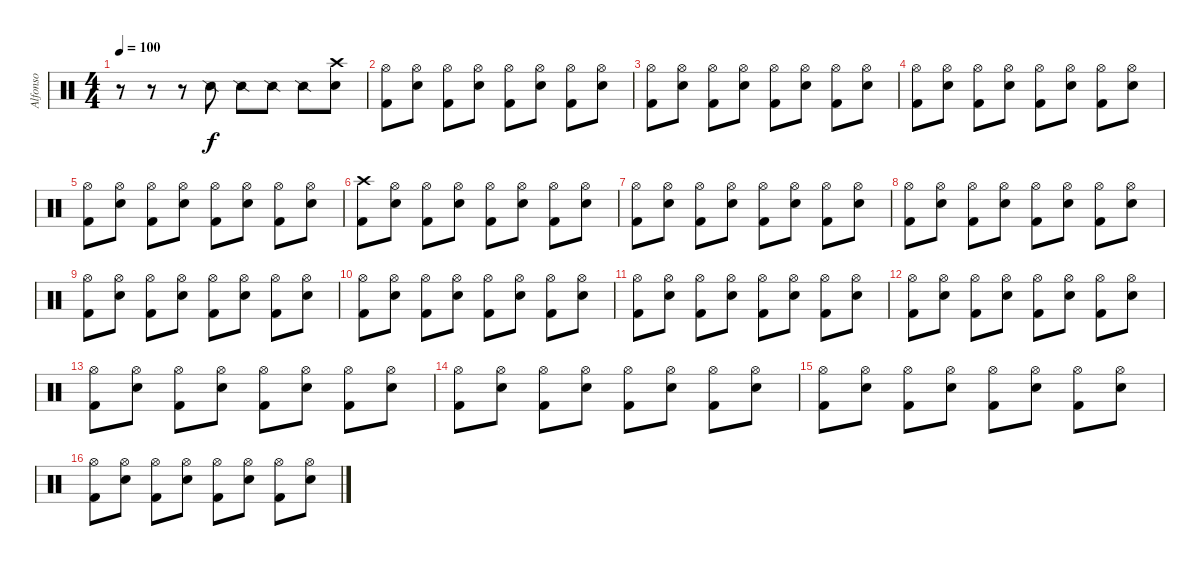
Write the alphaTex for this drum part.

\track ("Alfonso" "Alfonso") {instrument percussion}
\staff {score}
\articulation defaults
\ts (4 4)
\tempo 100
\clef neutral
\ks c
r.8{dy f} r.8 r.8 "Snare (side stick) 2".8 "Snare (side stick) 2".8 "Snare (side stick) 2".8 "Snare (side stick) 2".8 ("Crash high (hit)" "Electric Snare (hit)").8 |
("Hi-Hat (open)" "Kick (hit) 2").8 ("Hi-Hat (open)" "Electric Snare (hit)").8 ("Hi-Hat (open)" "Kick (hit) 2").8 ("Hi-Hat (open)" "Electric Snare (hit)").8 ("Hi-Hat (open)" "Kick (hit) 2").8 ("Hi-Hat (open)" "Electric Snare (hit)").8 ("Hi-Hat (open)" "Kick (hit) 2").8 ("Hi-Hat (open)" "Electric Snare (hit)").8 |
("Hi-Hat (open)" "Kick (hit) 2").8 ("Hi-Hat (open)" "Electric Snare (hit)").8 ("Hi-Hat (open)" "Kick (hit) 2").8 ("Hi-Hat (open)" "Electric Snare (hit)").8 ("Hi-Hat (open)" "Kick (hit) 2").8 ("Hi-Hat (open)" "Electric Snare (hit)").8 ("Hi-Hat (open)" "Kick (hit) 2").8 ("Hi-Hat (open)" "Electric Snare (hit)").8 |
("Hi-Hat (open)" "Kick (hit) 2").8 ("Hi-Hat (open)" "Electric Snare (hit)").8 ("Hi-Hat (open)" "Kick (hit) 2").8 ("Hi-Hat (open)" "Electric Snare (hit)").8 ("Hi-Hat (open)" "Kick (hit) 2").8 ("Hi-Hat (open)" "Electric Snare (hit)").8 ("Hi-Hat (open)" "Kick (hit) 2").8 ("Hi-Hat (open)" "Electric Snare (hit)").8 |
("Hi-Hat (open)" "Kick (hit) 2").8 ("Hi-Hat (open)" "Electric Snare (hit)").8 ("Hi-Hat (open)" "Kick (hit) 2").8 ("Hi-Hat (open)" "Electric Snare (hit)").8 ("Hi-Hat (open)" "Kick (hit) 2").8 ("Hi-Hat (open)" "Electric Snare (hit)").8 ("Hi-Hat (open)" "Kick (hit) 2").8 ("Hi-Hat (open)" "Electric Snare (hit)").8 |
("Crash high (hit)" "Kick (hit) 2").8 ("Hi-Hat (open)" "Electric Snare (hit)").8 ("Hi-Hat (open)" "Kick (hit) 2").8 ("Hi-Hat (open)" "Electric Snare (hit)").8 ("Hi-Hat (open)" "Kick (hit) 2").8 ("Hi-Hat (open)" "Electric Snare (hit)").8 ("Hi-Hat (open)" "Kick (hit) 2").8 ("Hi-Hat (open)" "Electric Snare (hit)").8 |
("Hi-Hat (open)" "Kick (hit) 2").8 ("Hi-Hat (open)" "Electric Snare (hit)").8 ("Hi-Hat (open)" "Kick (hit) 2").8 ("Hi-Hat (open)" "Electric Snare (hit)").8 ("Hi-Hat (open)" "Kick (hit) 2").8 ("Hi-Hat (open)" "Electric Snare (hit)").8 ("Hi-Hat (open)" "Kick (hit) 2").8 ("Hi-Hat (open)" "Electric Snare (hit)").8 |
("Hi-Hat (open)" "Kick (hit) 2").8 ("Hi-Hat (open)" "Electric Snare (hit)").8 ("Hi-Hat (open)" "Kick (hit) 2").8 ("Hi-Hat (open)" "Electric Snare (hit)").8 ("Hi-Hat (open)" "Kick (hit) 2").8 ("Hi-Hat (open)" "Electric Snare (hit)").8 ("Hi-Hat (open)" "Kick (hit) 2").8 ("Hi-Hat (open)" "Electric Snare (hit)").8 |
("Hi-Hat (open)" "Kick (hit) 2").8 ("Hi-Hat (open)" "Electric Snare (hit)").8 ("Hi-Hat (open)" "Kick (hit) 2").8 ("Hi-Hat (open)" "Electric Snare (hit)").8 ("Hi-Hat (open)" "Kick (hit) 2").8 ("Hi-Hat (open)" "Electric Snare (hit)").8 ("Hi-Hat (open)" "Kick (hit) 2").8 ("Hi-Hat (open)" "Electric Snare (hit)").8 |
("Hi-Hat (open)" "Kick (hit) 2").8 ("Hi-Hat (open)" "Electric Snare (hit)").8 ("Hi-Hat (open)" "Kick (hit) 2").8 ("Hi-Hat (open)" "Electric Snare (hit)").8 ("Hi-Hat (open)" "Kick (hit) 2").8 ("Hi-Hat (open)" "Electric Snare (hit)").8 ("Hi-Hat (open)" "Kick (hit) 2").8 ("Hi-Hat (open)" "Electric Snare (hit)").8 |
("Hi-Hat (open)" "Kick (hit) 2").8 ("Hi-Hat (open)" "Electric Snare (hit)").8 ("Hi-Hat (open)" "Kick (hit) 2").8 ("Hi-Hat (open)" "Electric Snare (hit)").8 ("Hi-Hat (open)" "Kick (hit) 2").8 ("Hi-Hat (open)" "Electric Snare (hit)").8 ("Hi-Hat (open)" "Kick (hit) 2").8 ("Hi-Hat (open)" "Electric Snare (hit)").8 |
("Hi-Hat (open)" "Kick (hit) 2").8 ("Hi-Hat (open)" "Electric Snare (hit)").8 ("Hi-Hat (open)" "Kick (hit) 2").8 ("Hi-Hat (open)" "Electric Snare (hit)").8 ("Hi-Hat (open)" "Kick (hit) 2").8 ("Hi-Hat (open)" "Electric Snare (hit)").8 ("Hi-Hat (open)" "Kick (hit) 2").8 ("Hi-Hat (open)" "Electric Snare (hit)").8 |
("Hi-Hat (open)" "Kick (hit) 2").8 ("Hi-Hat (open)" "Electric Snare (hit)").8 ("Hi-Hat (open)" "Kick (hit) 2").8 ("Hi-Hat (open)" "Electric Snare (hit)").8 ("Hi-Hat (open)" "Kick (hit) 2").8 ("Hi-Hat (open)" "Electric Snare (hit)").8 ("Hi-Hat (open)" "Kick (hit) 2").8 ("Hi-Hat (open)" "Electric Snare (hit)").8 |
("Hi-Hat (open)" "Kick (hit) 2").8 ("Hi-Hat (open)" "Electric Snare (hit)").8 ("Hi-Hat (open)" "Kick (hit) 2").8 ("Hi-Hat (open)" "Electric Snare (hit)").8 ("Hi-Hat (open)" "Kick (hit) 2").8 ("Hi-Hat (open)" "Electric Snare (hit)").8 ("Hi-Hat (open)" "Kick (hit) 2").8 ("Hi-Hat (open)" "Electric Snare (hit)").8 |
("Hi-Hat (open)" "Kick (hit) 2").8 ("Hi-Hat (open)" "Electric Snare (hit)").8 ("Hi-Hat (open)" "Kick (hit) 2").8 ("Hi-Hat (open)" "Electric Snare (hit)").8 ("Hi-Hat (open)" "Kick (hit) 2").8 ("Hi-Hat (open)" "Electric Snare (hit)").8 ("Hi-Hat (open)" "Kick (hit) 2").8 ("Hi-Hat (open)" "Electric Snare (hit)").8 |
("Hi-Hat (open)" "Kick (hit) 2").8 ("Hi-Hat (open)" "Electric Snare (hit)").8 ("Hi-Hat (open)" "Kick (hit) 2").8 ("Hi-Hat (open)" "Electric Snare (hit)").8 ("Hi-Hat (open)" "Kick (hit) 2").8 ("Hi-Hat (open)" "Electric Snare (hit)").8 ("Hi-Hat (open)" "Kick (hit) 2").8 ("Hi-Hat (open)" "Electric Snare (hit)").8
